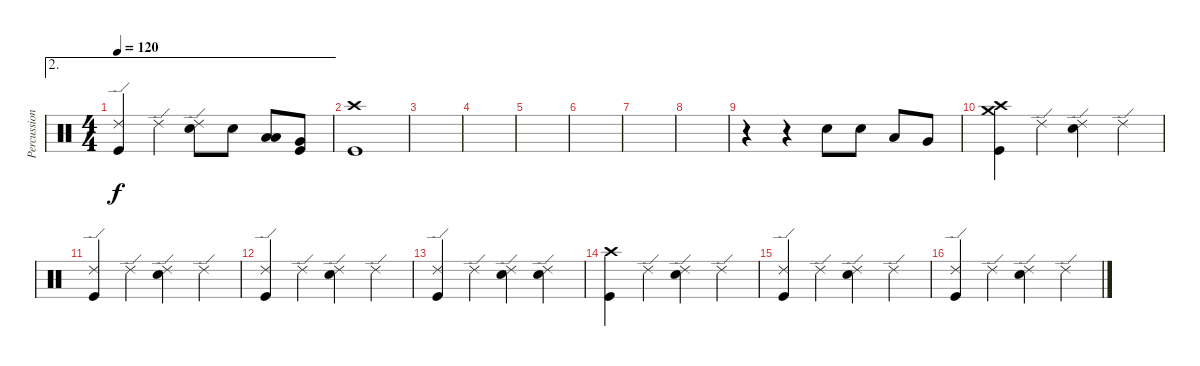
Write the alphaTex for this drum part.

\track ("Percussions" "Percussion") {instrument percussion}
\staff {score}
\articulation defaults
\ae 2
\ts (4 4)
\tempo 120
\clef neutral
\ks c
("Ride (edge) 2" "Kick (hit)").4{dy f} "Ride (edge) 2".4 ("Ride (edge) 2" "Electric Snare (hit)").8 "Electric Snare (hit)".8 ("Low Tom (hit)" "Low Tom (hit)").8{bd 120} ("Very Low Tom (hit)" "Kick (hit)").8 |
("Crash high (hit)" "Kick (hit)").1 |
|
|
|
|
|
|
r.4 r.4 "Electric Snare (hit)".8 "Electric Snare (hit)".8 "Low Tom (hit)".8 "Very Low Tom (hit)".8 |
("Crash high (hit)" "Crash medium (hit)" "Kick (hit)").4 "Ride (edge) 2".4 ("Ride (edge) 2" "Electric Snare (hit)").4 "Ride (edge) 2".4 |
("Ride (edge) 2" "Kick (hit)").4 "Ride (edge) 2".4 ("Ride (edge) 2" "Electric Snare (hit)").4 "Ride (edge) 2".4 |
("Ride (edge) 2" "Kick (hit)").4 "Ride (edge) 2".4 ("Ride (edge) 2" "Electric Snare (hit)").4 "Ride (edge) 2".4 |
("Ride (edge) 2" "Kick (hit)").4 "Ride (edge) 2".4 ("Ride (edge) 2" "Electric Snare (hit)").4 ("Ride (edge) 2" "Electric Snare (hit)").4 |
("Crash high (hit)" "Kick (hit)").4 "Ride (edge) 2".4 ("Ride (edge) 2" "Electric Snare (hit)").4 "Ride (edge) 2".4 |
("Ride (edge) 2" "Kick (hit)").4 "Ride (edge) 2".4 ("Ride (edge) 2" "Electric Snare (hit)").4 "Ride (edge) 2".4 |
("Ride (edge) 2" "Kick (hit)").4 "Ride (edge) 2".4 ("Ride (edge) 2" "Electric Snare (hit)").4 "Ride (edge) 2".4
